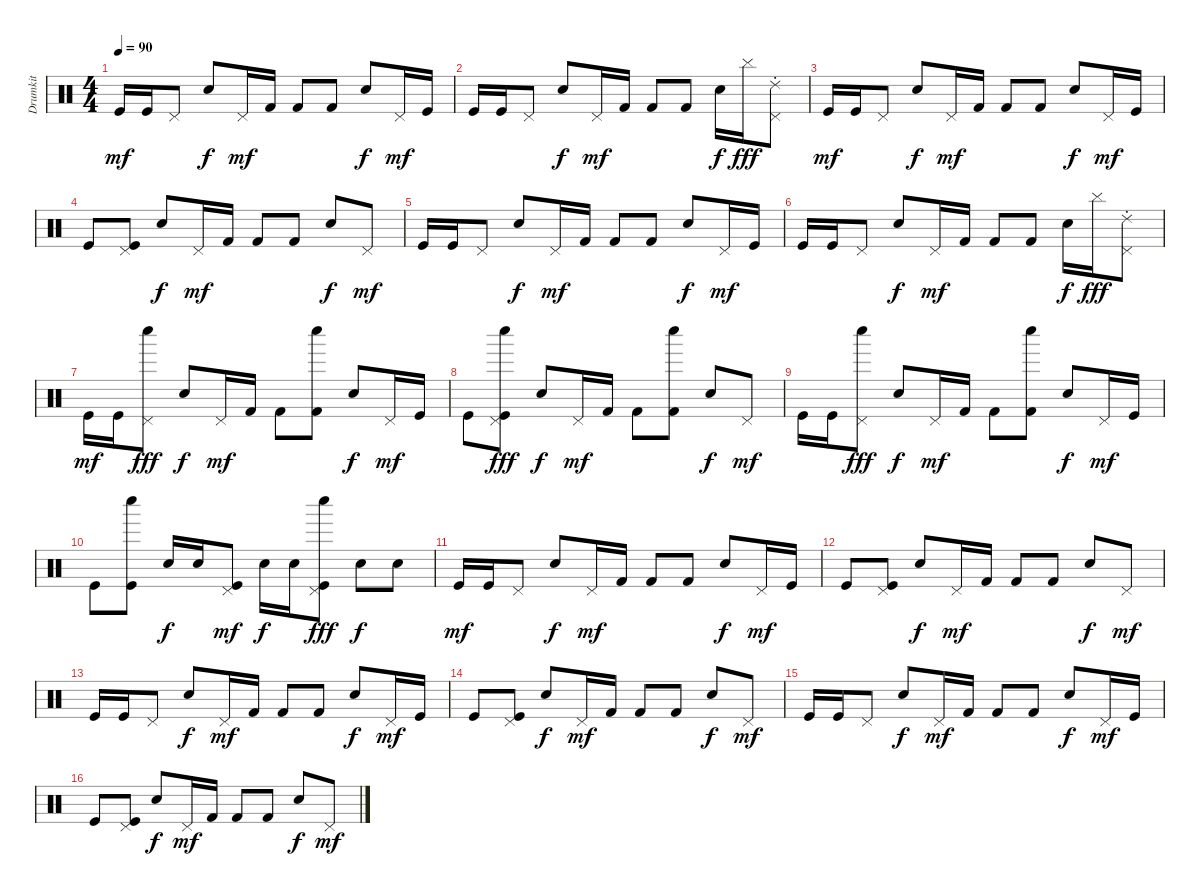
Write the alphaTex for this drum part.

\track ("Drumkit" "Drumkit") {instrument percussion}
\staff {score}
\articulation defaults
\ts (4 4)
\tempo 90
\clef neutral
\ks c "Kick (hit)".16{dy mf} "Kick (hit)".16 "Pedal Hi-Hat (hit)".8 "Snare (hit) 2".8{dy f} "Pedal Hi-Hat (hit)".16{dy mf} "Kick (hit) 2".16 "Kick (hit) 2".8 "Kick (hit) 2".8 "Snare (hit) 2".8{dy f} "Pedal Hi-Hat (hit)".16{dy mf} "Kick (hit)".16
|
"Kick (hit)".16 "Kick (hit)".16 "Pedal Hi-Hat (hit)".8 "Snare (hit) 2".8{dy f} "Pedal Hi-Hat (hit)".16{dy mf} "Kick (hit) 2".16 "Kick (hit) 2".8 "Kick (hit) 2".8 "Snare (hit) 2".16{dy f} "Cymbal (hit)".16{dy fff} ("Pedal Hi-Hat (hit)" "Ride (choke) 2").8 |
"Kick (hit)".16{dy mf} "Kick (hit)".16 "Pedal Hi-Hat (hit)".8 "Snare (hit) 2".8{dy f} "Pedal Hi-Hat (hit)".16{dy mf} "Kick (hit) 2".16 "Kick (hit) 2".8 "Kick (hit) 2".8 "Snare (hit) 2".8{dy f} "Pedal Hi-Hat (hit)".16{dy mf} "Kick (hit)".16 |
"Kick (hit)".8 ("Pedal Hi-Hat (hit)" "Kick (hit)").8 "Snare (hit) 2".8{dy f} "Pedal Hi-Hat (hit)".16{dy mf} "Kick (hit) 2".16 "Kick (hit) 2".8 "Kick (hit) 2".8 "Snare (hit) 2".8{dy f} "Pedal Hi-Hat (hit)".8{dy mf} |
"Kick (hit)".16 "Kick (hit)".16 "Pedal Hi-Hat (hit)".8 "Snare (hit) 2".8{dy f} "Pedal Hi-Hat (hit)".16{dy mf} "Kick (hit) 2".16 "Kick (hit) 2".8 "Kick (hit) 2".8 "Snare (hit) 2".8{dy f} "Pedal Hi-Hat (hit)".16{dy mf} "Kick (hit)".16 |
"Kick (hit)".16 "Kick (hit)".16 "Pedal Hi-Hat (hit)".8 "Snare (hit) 2".8{dy f} "Pedal Hi-Hat (hit)".16{dy mf} "Kick (hit) 2".16 "Kick (hit) 2".8 "Kick (hit) 2".8 "Snare (hit) 2".16{dy f} "Cymbal (hit)".16{dy fff} ("Pedal Hi-Hat (hit)" "Ride (choke) 2").8 |
"Kick (hit)".16{dy mf} "Kick (hit)".16 ("Pedal Hi-Hat (hit)" "Whistle low (hit)").8{dy fff} "Snare (hit) 2".8{dy f} "Pedal Hi-Hat (hit)".16{dy mf} "Kick (hit) 2".16 "Kick (hit) 2".8 ("Whistle low (hit)" "Kick (hit) 2").8 "Snare (hit) 2".8{dy f} "Pedal Hi-Hat (hit)".16{dy mf} "Kick (hit)".16 |
"Kick (hit)".8 ("Pedal Hi-Hat (hit)" "Kick (hit)" "Whistle low (hit)").8{dy fff} "Snare (hit) 2".8{dy f} "Pedal Hi-Hat (hit)".16{dy mf} "Kick (hit) 2".16 "Kick (hit) 2".8 ("Whistle low (hit)" "Kick (hit) 2").8 "Snare (hit) 2".8{dy f} "Pedal Hi-Hat (hit)".8{dy mf} |
"Kick (hit)".16 "Kick (hit)".16 ("Whistle low (hit)" "Pedal Hi-Hat (hit)").8{dy fff} "Snare (hit) 2".8{dy f} "Pedal Hi-Hat (hit)".16{dy mf} "Kick (hit) 2".16 "Kick (hit) 2".8 ("Whistle low (hit)" "Kick (hit) 2").8 "Snare (hit) 2".8{dy f} "Pedal Hi-Hat (hit)".16{dy mf} "Kick (hit)".16 |
"Kick (hit)".8 ("Whistle low (hit)" "Kick (hit)").8 "Snare (hit) 2".16{dy f} "Snare (hit) 2".16 ("Kick (hit)" "Pedal Hi-Hat (hit)").8{dy mf} "Snare (hit) 2".16{dy f} "Snare (hit) 2".16 ("Kick (hit)" "Pedal Hi-Hat (hit)" "Whistle low (hit)").8{dy fff} "Snare (hit) 2".8{dy f} "Snare (hit) 2".8 |
"Kick (hit)".16{dy mf} "Kick (hit)".16 "Pedal Hi-Hat (hit)".8 "Snare (hit) 2".8{dy f} "Pedal Hi-Hat (hit)".16{dy mf} "Kick (hit) 2".16 "Kick (hit) 2".8 "Kick (hit) 2".8 "Snare (hit) 2".8{dy f} "Pedal Hi-Hat (hit)".16{dy mf} "Kick (hit)".16 |
"Kick (hit)".8 ("Pedal Hi-Hat (hit)" "Kick (hit)").8 "Snare (hit) 2".8{dy f} "Pedal Hi-Hat (hit)".16{dy mf} "Kick (hit) 2".16 "Kick (hit) 2".8 "Kick (hit) 2".8 "Snare (hit) 2".8{dy f} "Pedal Hi-Hat (hit)".8{dy mf} |
"Kick (hit)".16 "Kick (hit)".16 "Pedal Hi-Hat (hit)".8 "Snare (hit) 2".8{dy f} "Pedal Hi-Hat (hit)".16{dy mf} "Kick (hit) 2".16 "Kick (hit) 2".8 "Kick (hit) 2".8 "Snare (hit) 2".8{dy f} "Pedal Hi-Hat (hit)".16{dy mf} "Kick (hit)".16 |
"Kick (hit)".8 ("Pedal Hi-Hat (hit)" "Kick (hit)").8 "Snare (hit) 2".8{dy f} "Pedal Hi-Hat (hit)".16{dy mf} "Kick (hit) 2".16 "Kick (hit) 2".8 "Kick (hit) 2".8 "Snare (hit) 2".8{dy f} "Pedal Hi-Hat (hit)".8{dy mf} |
"Kick (hit)".16 "Kick (hit)".16 "Pedal Hi-Hat (hit)".8 "Snare (hit) 2".8{dy f} "Pedal Hi-Hat (hit)".16{dy mf} "Kick (hit) 2".16 "Kick (hit) 2".8 "Kick (hit) 2".8 "Snare (hit) 2".8{dy f} "Pedal Hi-Hat (hit)".16{dy mf} "Kick (hit)".16 |
"Kick (hit)".8 ("Pedal Hi-Hat (hit)" "Kick (hit)").8 "Snare (hit) 2".8{dy f} "Pedal Hi-Hat (hit)".16{dy mf} "Kick (hit) 2".16 "Kick (hit) 2".8 "Kick (hit) 2".8 "Snare (hit) 2".8{dy f} "Pedal Hi-Hat (hit)".8{dy mf}
